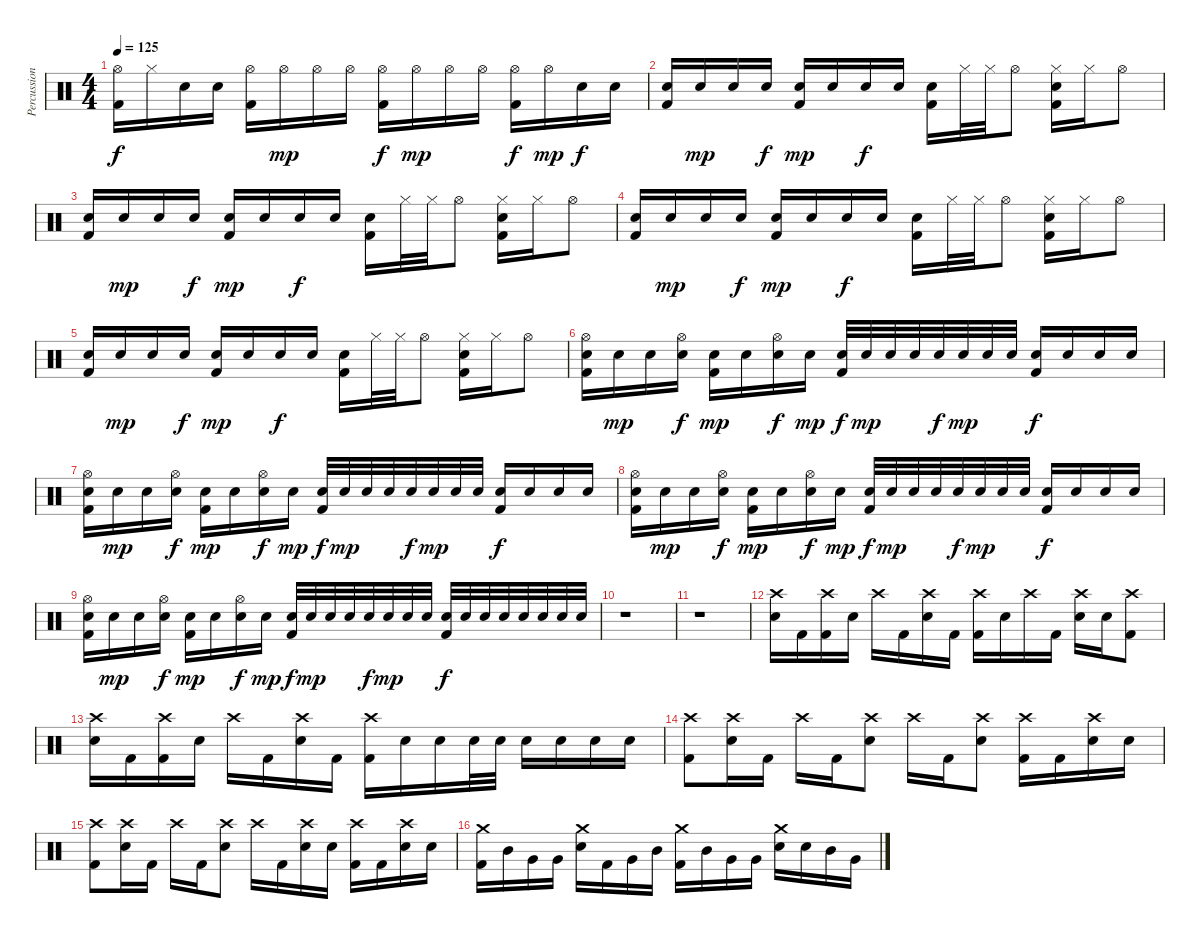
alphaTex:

\track ("Percussion" "Percussion") {instrument percussion}
\staff {score}
\articulation defaults
\ts (4 4)
\tempo 125
\clef neutral
\ks c
("Hi-Hat (open)" "Kick (hit) 2").16{dy f} "Hi-Hat (closed)".16 "Snare (hit) 2".16 "Snare (hit) 2".16 ("Hi-Hat (open)" "Kick (hit) 2").16 "Hi-Hat (open)".16{dy mp} "Hi-Hat (open)".16 "Hi-Hat (open)".16 ("Hi-Hat (open)" "Kick (hit) 2").16{dy f} "Hi-Hat (open)".16{dy mp} "Hi-Hat (open)".16 "Hi-Hat (open)".16 ("Hi-Hat (open)" "Kick (hit) 2").16{dy f} "Hi-Hat (open)".16{dy mp} "Snare (hit) 2".16{dy f} "Snare (hit) 2".16 |
("Snare (hit) 2" "Kick (hit) 2").16 "Snare (hit) 2".16{dy mp} "Snare (hit) 2".16 "Snare (hit) 2".16{dy f} ("Snare (hit) 2" "Kick (hit) 2").16{dy mp} "Snare (hit) 2".16 "Snare (hit) 2".16{dy f} "Snare (hit) 2".16 ("Snare (hit) 2" "Kick (hit) 2").16 "Hi-Hat (closed)".32 "Hi-Hat (closed)".32 "Hi-Hat (open)".8 ("Hi-Hat (closed)" "Snare (hit) 2" "Kick (hit) 2").16 "Hi-Hat (closed)".16 "Hi-Hat (open)".8 |
("Snare (hit) 2" "Kick (hit) 2").16 "Snare (hit) 2".16{dy mp} "Snare (hit) 2".16 "Snare (hit) 2".16{dy f} ("Snare (hit) 2" "Kick (hit) 2").16{dy mp} "Snare (hit) 2".16 "Snare (hit) 2".16{dy f} "Snare (hit) 2".16 ("Snare (hit) 2" "Kick (hit) 2").16 "Hi-Hat (closed)".32 "Hi-Hat (closed)".32 "Hi-Hat (open)".8 ("Hi-Hat (closed)" "Snare (hit) 2" "Kick (hit) 2").16 "Hi-Hat (closed)".16 "Hi-Hat (open)".8 |
("Snare (hit) 2" "Kick (hit) 2").16 "Snare (hit) 2".16{dy mp} "Snare (hit) 2".16 "Snare (hit) 2".16{dy f} ("Snare (hit) 2" "Kick (hit) 2").16{dy mp} "Snare (hit) 2".16 "Snare (hit) 2".16{dy f} "Snare (hit) 2".16 ("Snare (hit) 2" "Kick (hit) 2").16 "Hi-Hat (closed)".32 "Hi-Hat (closed)".32 "Hi-Hat (open)".8 ("Hi-Hat (closed)" "Snare (hit) 2" "Kick (hit) 2").16 "Hi-Hat (closed)".16 "Hi-Hat (open)".8 |
("Snare (hit) 2" "Kick (hit) 2").16 "Snare (hit) 2".16{dy mp} "Snare (hit) 2".16 "Snare (hit) 2".16{dy f} ("Snare (hit) 2" "Kick (hit) 2").16{dy mp} "Snare (hit) 2".16 "Snare (hit) 2".16{dy f} "Snare (hit) 2".16 ("Snare (hit) 2" "Kick (hit) 2").16 "Hi-Hat (closed)".32 "Hi-Hat (closed)".32 "Hi-Hat (open)".8 ("Hi-Hat (closed)" "Snare (hit) 2" "Kick (hit) 2").16 "Hi-Hat (closed)".16 "Hi-Hat (open)".8 |
("Hi-Hat (open)" "Snare (hit) 2" "Kick (hit) 2").16 "Snare (hit) 2".16{dy mp} "Snare (hit) 2".16 ("Hi-Hat (open)" "Snare (hit) 2").16{dy f} ("Snare (hit) 2" "Kick (hit) 2").16{dy mp} "Snare (hit) 2".16 ("Hi-Hat (open)" "Snare (hit) 2").16{dy f} "Snare (hit) 2".16{dy mp} ("Snare (hit) 2" "Kick (hit) 2").32{dy f} "Snare (hit) 2".32{dy mp} "Snare (hit) 2".32 "Snare (hit) 2".32 "Snare (hit) 2".32{dy f} "Snare (hit) 2".32{dy mp} "Snare (hit) 2".32 "Snare (hit) 2".32 ("Snare (hit) 2" "Kick (hit) 2").16{dy f} "Snare (hit) 2".16 "Snare (hit) 2".16 "Snare (hit) 2".16 |
("Hi-Hat (open)" "Snare (hit) 2" "Kick (hit) 2").16 "Snare (hit) 2".16{dy mp} "Snare (hit) 2".16 ("Hi-Hat (open)" "Snare (hit) 2").16{dy f} ("Snare (hit) 2" "Kick (hit) 2").16{dy mp} "Snare (hit) 2".16 ("Hi-Hat (open)" "Snare (hit) 2").16{dy f} "Snare (hit) 2".16{dy mp} ("Snare (hit) 2" "Kick (hit) 2").32{dy f} "Snare (hit) 2".32{dy mp} "Snare (hit) 2".32 "Snare (hit) 2".32 "Snare (hit) 2".32{dy f} "Snare (hit) 2".32{dy mp} "Snare (hit) 2".32 "Snare (hit) 2".32 ("Snare (hit) 2" "Kick (hit) 2").16{dy f} "Snare (hit) 2".16 "Snare (hit) 2".16 "Snare (hit) 2".16 |
("Hi-Hat (open)" "Snare (hit) 2" "Kick (hit) 2").16 "Snare (hit) 2".16{dy mp} "Snare (hit) 2".16 ("Hi-Hat (open)" "Snare (hit) 2").16{dy f} ("Snare (hit) 2" "Kick (hit) 2").16{dy mp} "Snare (hit) 2".16 ("Hi-Hat (open)" "Snare (hit) 2").16{dy f} "Snare (hit) 2".16{dy mp} ("Snare (hit) 2" "Kick (hit) 2").32{dy f} "Snare (hit) 2".32{dy mp} "Snare (hit) 2".32 "Snare (hit) 2".32 "Snare (hit) 2".32{dy f} "Snare (hit) 2".32{dy mp} "Snare (hit) 2".32 "Snare (hit) 2".32 ("Snare (hit) 2" "Kick (hit) 2").16{dy f} "Snare (hit) 2".16 "Snare (hit) 2".16 "Snare (hit) 2".16 |
("Hi-Hat (open)" "Snare (hit) 2" "Kick (hit) 2").16 "Snare (hit) 2".16{dy mp} "Snare (hit) 2".16 ("Hi-Hat (open)" "Snare (hit) 2").16{dy f} ("Snare (hit) 2" "Kick (hit) 2").16{dy mp} "Snare (hit) 2".16 ("Hi-Hat (open)" "Snare (hit) 2").16{dy f} "Snare (hit) 2".16{dy mp} ("Snare (hit) 2" "Kick (hit) 2").32{dy f} "Snare (hit) 2".32{dy mp} "Snare (hit) 2".32 "Snare (hit) 2".32 "Snare (hit) 2".32{dy f} "Snare (hit) 2".32{dy mp} "Snare (hit) 2".32 "Snare (hit) 2".32 ("Snare (hit) 2" "Kick (hit) 2").32{dy f} "Snare (hit) 2".32 "Snare (hit) 2".32 "Snare (hit) 2".32 "Snare (hit) 2".32 "Snare (hit) 2".32 "Snare (hit) 2".32 "Snare (hit) 2".32 |
r.1 |
r.1 |
("Crash high (hit)" "Snare (hit) 2").16 "Kick (hit) 2".16 ("Crash high (hit)" "Kick (hit) 2").16 "Snare (hit) 2".16 "Crash high (hit)".16 "Kick (hit) 2".16 ("Crash high (hit)" "Snare (hit) 2").16 "Kick (hit) 2".16 ("Crash high (hit)" "Kick (hit) 2").16 "Snare (hit) 2".16 "Crash high (hit)".16 "Kick (hit) 2".16 ("Crash high (hit)" "Snare (hit) 2").16 "Snare (hit) 2".16 ("Crash high (hit)" "Kick (hit) 2").8 |
("Crash high (hit)" "Snare (hit) 2").16 "Kick (hit) 2".16 ("Crash high (hit)" "Kick (hit) 2").16 "Snare (hit) 2".16 "Crash high (hit)".16 "Kick (hit) 2".16 ("Crash high (hit)" "Snare (hit) 2").16 "Kick (hit) 2".16 ("Crash high (hit)" "Kick (hit) 2").16 "Snare (hit) 2".16 "Snare (hit) 2".16 "Snare (hit) 2".32 "Snare (hit) 2".32 "Snare (hit) 2".16 "Snare (hit) 2".16 "Snare (hit) 2".16 "Snare (hit) 2".16 |
("Crash high (hit)" "Kick (hit) 2").8 ("Crash high (hit)" "Snare (hit) 2").16 "Kick (hit) 2".16 "Crash high (hit)".16 "Kick (hit) 2".16 ("Crash high (hit)" "Snare (hit) 2").8 "Crash high (hit)".16 "Kick (hit) 2".16 ("Crash high (hit)" "Snare (hit) 2").8 ("Crash high (hit)" "Kick (hit) 2").16 "Kick (hit) 2".16 ("Crash high (hit)" "Snare (hit) 2").16 "Snare (hit) 2".16 |
("Crash high (hit)" "Kick (hit) 2").8 ("Crash high (hit)" "Snare (hit) 2").16 "Kick (hit) 2".16 "Crash high (hit)".16 "Kick (hit) 2".16 ("Crash high (hit)" "Snare (hit) 2").8 "Crash high (hit)".16 "Kick (hit) 2".16 ("Crash high (hit)" "Snare (hit) 2").16 "Snare (hit) 2".16 ("Crash high (hit)" "Kick (hit) 2").16 "Kick (hit) 2".16 ("Crash high (hit)" "Snare (hit) 2").16 "Snare (hit) 2".16 |
("Crash medium (hit)" "Kick (hit) 2").16 "Mid Tom (hit)".16 "Very Low Tom (hit)".16 "Very Low Tom (hit)".16 ("Crash medium (hit)" "Snare (hit) 2").16 "Kick (hit) 2".16 "Very Low Tom (hit)".16 "Mid Tom (hit)".16 ("Crash medium (hit)" "Kick (hit) 2").16 "Mid Tom (hit)".16 "Very Low Tom (hit)".16 "Very Low Tom (hit)".16 ("Crash medium (hit)" "Snare (hit) 2").16 "Snare (hit) 2".16 "Mid Tom (hit)".16 "Very Low Tom (hit)".16
